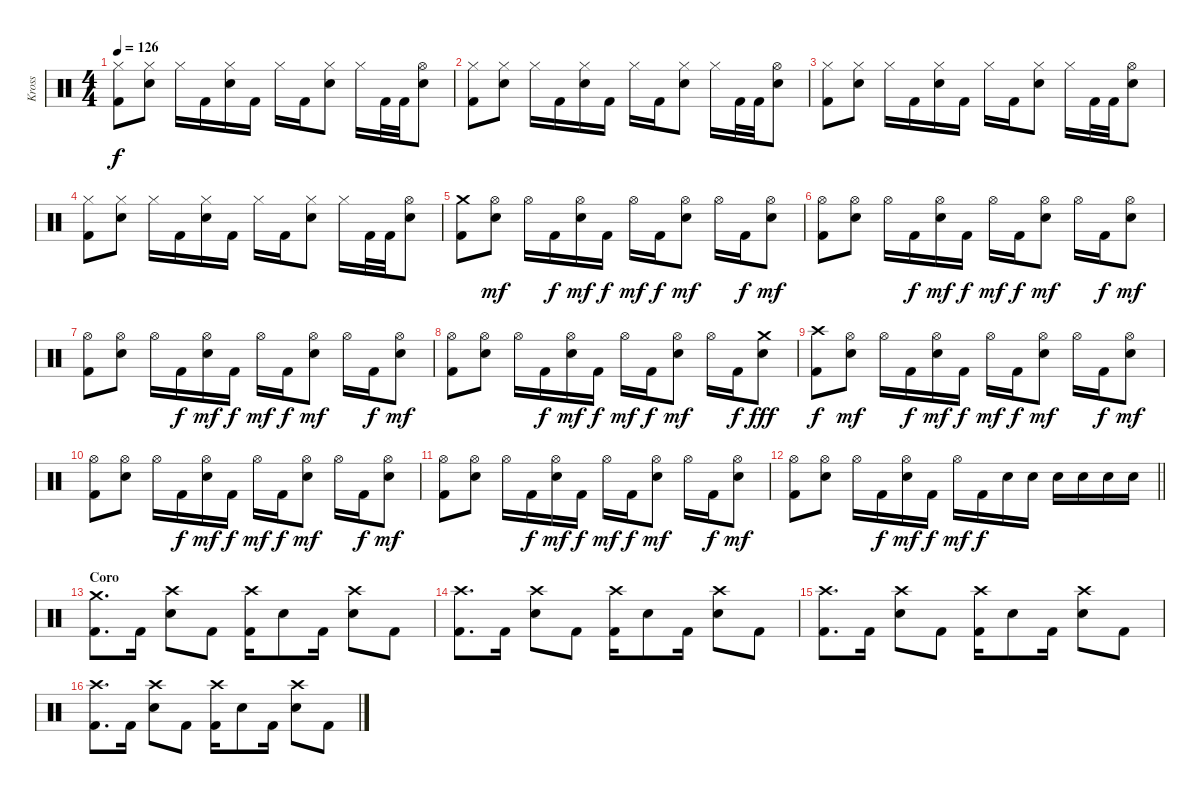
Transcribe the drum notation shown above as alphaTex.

\track ("Kross" "Kross") {instrument percussion}
\staff {score}
\articulation defaults
\ts (4 4)
\tempo 126
\clef neutral
\ks c
("Hi-Hat (closed)" "Kick (hit) 2").8{dy f} ("Hi-Hat (closed)" "Electric Snare (hit)").8 "Hi-Hat (closed)".16 "Kick (hit) 2".16 ("Hi-Hat (closed)" "Electric Snare (hit)").16 "Kick (hit) 2".16 "Hi-Hat (closed)".16 "Kick (hit) 2".16 ("Hi-Hat (closed)" "Electric Snare (hit)").8 "Hi-Hat (closed)".16 "Kick (hit) 2".32 "Kick (hit) 2".32 ("Hi-Hat (open)" "Electric Snare (hit)").8 |
("Hi-Hat (closed)" "Kick (hit) 2").8 ("Hi-Hat (closed)" "Electric Snare (hit)").8 "Hi-Hat (closed)".16 "Kick (hit) 2".16 ("Hi-Hat (closed)" "Electric Snare (hit)").16 "Kick (hit) 2".16 "Hi-Hat (closed)".16 "Kick (hit) 2".16 ("Hi-Hat (closed)" "Electric Snare (hit)").8 "Hi-Hat (closed)".16 "Kick (hit) 2".32 "Kick (hit) 2".32 ("Hi-Hat (open)" "Electric Snare (hit)").8 |
("Hi-Hat (closed)" "Kick (hit) 2").8 ("Hi-Hat (closed)" "Electric Snare (hit)").8 "Hi-Hat (closed)".16 "Kick (hit) 2".16 ("Hi-Hat (closed)" "Electric Snare (hit)").16 "Kick (hit) 2".16 "Hi-Hat (closed)".16 "Kick (hit) 2".16 ("Hi-Hat (closed)" "Electric Snare (hit)").8 "Hi-Hat (closed)".16 "Kick (hit) 2".32 "Kick (hit) 2".32 ("Hi-Hat (open)" "Electric Snare (hit)").8 |
("Hi-Hat (closed)" "Kick (hit) 2").8 ("Hi-Hat (closed)" "Electric Snare (hit)").8 "Hi-Hat (closed)".16 "Kick (hit) 2".16 ("Hi-Hat (closed)" "Electric Snare (hit)").16 "Kick (hit) 2".16 "Hi-Hat (closed)".16 "Kick (hit) 2".16 ("Hi-Hat (closed)" "Electric Snare (hit)").8 "Hi-Hat (closed)".16 "Kick (hit) 2".32 "Kick (hit) 2".32 ("Hi-Hat (open)" "Electric Snare (hit)").8 |
("Crash medium (hit)" "Kick (hit) 2").8 ("Hi-Hat (open)" "Electric Snare (hit)").8{dy mf} "Hi-Hat (open)".16 "Kick (hit) 2".16{dy f} ("Hi-Hat (open)" "Electric Snare (hit)").16{dy mf} "Kick (hit) 2".16{dy f} "Hi-Hat (open)".16{dy mf} "Kick (hit) 2".16{dy f} ("Hi-Hat (open)" "Electric Snare (hit)").8{dy mf} "Hi-Hat (open)".16 "Kick (hit) 2".16{dy f} ("Hi-Hat (open)" "Electric Snare (hit)").8{dy mf} |
("Hi-Hat (open)" "Kick (hit) 2").8 ("Hi-Hat (open)" "Electric Snare (hit)").8 "Hi-Hat (open)".16 "Kick (hit) 2".16{dy f} ("Hi-Hat (open)" "Electric Snare (hit)").16{dy mf} "Kick (hit) 2".16{dy f} "Hi-Hat (open)".16{dy mf} "Kick (hit) 2".16{dy f} ("Hi-Hat (open)" "Electric Snare (hit)").8{dy mf} "Hi-Hat (open)".16 "Kick (hit) 2".16{dy f} ("Hi-Hat (open)" "Electric Snare (hit)").8{dy mf} |
("Hi-Hat (open)" "Kick (hit) 2").8 ("Hi-Hat (open)" "Electric Snare (hit)").8 "Hi-Hat (open)".16 "Kick (hit) 2".16{dy f} ("Hi-Hat (open)" "Electric Snare (hit)").16{dy mf} "Kick (hit) 2".16{dy f} "Hi-Hat (open)".16{dy mf} "Kick (hit) 2".16{dy f} ("Hi-Hat (open)" "Electric Snare (hit)").8{dy mf} "Hi-Hat (open)".16 "Kick (hit) 2".16{dy f} ("Hi-Hat (open)" "Electric Snare (hit)").8{dy mf} |
("Hi-Hat (open)" "Kick (hit) 2").8 ("Hi-Hat (open)" "Electric Snare (hit)").8 "Hi-Hat (open)".16 "Kick (hit) 2".16{dy f} ("Hi-Hat (open)" "Electric Snare (hit)").16{dy mf} "Kick (hit) 2".16{dy f} "Hi-Hat (open)".16{dy mf} "Kick (hit) 2".16{dy f} ("Hi-Hat (open)" "Electric Snare (hit)").8{dy mf} "Hi-Hat (open)".16 "Kick (hit) 2".16{dy f} ("Crash medium (hit)" "Electric Snare (hit)").8{dy fff} |
("Crash high (hit)" "Kick (hit) 2").8{dy f} ("Hi-Hat (open)" "Electric Snare (hit)").8{dy mf} "Hi-Hat (open)".16 "Kick (hit) 2".16{dy f} ("Hi-Hat (open)" "Electric Snare (hit)").16{dy mf} "Kick (hit) 2".16{dy f} "Hi-Hat (open)".16{dy mf} "Kick (hit) 2".16{dy f} ("Hi-Hat (open)" "Electric Snare (hit)").8{dy mf} "Hi-Hat (open)".16 "Kick (hit) 2".16{dy f} ("Hi-Hat (open)" "Electric Snare (hit)").8{dy mf} |
("Hi-Hat (open)" "Kick (hit) 2").8 ("Hi-Hat (open)" "Electric Snare (hit)").8 "Hi-Hat (open)".16 "Kick (hit) 2".16{dy f} ("Hi-Hat (open)" "Electric Snare (hit)").16{dy mf} "Kick (hit) 2".16{dy f} "Hi-Hat (open)".16{dy mf} "Kick (hit) 2".16{dy f} ("Hi-Hat (open)" "Electric Snare (hit)").8{dy mf} "Hi-Hat (open)".16 "Kick (hit) 2".16{dy f} ("Hi-Hat (open)" "Electric Snare (hit)").8{dy mf} |
("Hi-Hat (open)" "Kick (hit) 2").8 ("Hi-Hat (open)" "Electric Snare (hit)").8 "Hi-Hat (open)".16 "Kick (hit) 2".16{dy f} ("Hi-Hat (open)" "Electric Snare (hit)").16{dy mf} "Kick (hit) 2".16{dy f} "Hi-Hat (open)".16{dy mf} "Kick (hit) 2".16{dy f} ("Hi-Hat (open)" "Electric Snare (hit)").8{dy mf} "Hi-Hat (open)".16 "Kick (hit) 2".16{dy f} ("Hi-Hat (open)" "Electric Snare (hit)").8{dy mf} |
\barLineRight lightlight
("Hi-Hat (open)" "Kick (hit) 2").8 ("Hi-Hat (open)" "Electric Snare (hit)").8 "Hi-Hat (open)".16 "Kick (hit) 2".16{dy f} ("Hi-Hat (open)" "Electric Snare (hit)").16{dy mf} "Kick (hit) 2".16{dy f} "Hi-Hat (open)".16{dy mf} "Kick (hit) 2".16{dy f} "Electric Snare (hit)".16 "Electric Snare (hit)".16 "Electric Snare (hit)".16 "Electric Snare (hit)".16 "Electric Snare (hit)".16 "Electric Snare (hit)".16 |
\section ("" "Coro")
("Crash medium (hit)" "Kick (hit) 2").8{d} "Kick (hit) 2".16 ("Crash high (hit)" "Electric Snare (hit)").8 "Kick (hit) 2".8 ("Crash high (hit)" "Kick (hit) 2").16 "Electric Snare (hit)".8 "Kick (hit) 2".16 ("Crash high (hit)" "Electric Snare (hit)").8 "Kick (hit) 2".8 |
("Crash high (hit)" "Kick (hit) 2").8{d} "Kick (hit) 2".16 ("Crash high (hit)" "Electric Snare (hit)").8 "Kick (hit) 2".8 ("Crash high (hit)" "Kick (hit) 2").16 "Electric Snare (hit)".8 "Kick (hit) 2".16 ("Crash high (hit)" "Electric Snare (hit)").8 "Kick (hit) 2".8 |
("Crash high (hit)" "Kick (hit) 2").8{d} "Kick (hit) 2".16 ("Crash high (hit)" "Electric Snare (hit)").8 "Kick (hit) 2".8 ("Crash high (hit)" "Kick (hit) 2").16 "Electric Snare (hit)".8 "Kick (hit) 2".16 ("Crash high (hit)" "Electric Snare (hit)").8 "Kick (hit) 2".8 |
("Crash high (hit)" "Kick (hit) 2").8{d} "Kick (hit) 2".16 ("Crash high (hit)" "Electric Snare (hit)").8 "Kick (hit) 2".8 ("Crash high (hit)" "Kick (hit) 2").16 "Electric Snare (hit)".8 "Kick (hit) 2".16 ("Crash high (hit)" "Electric Snare (hit)").8 "Kick (hit) 2".8
